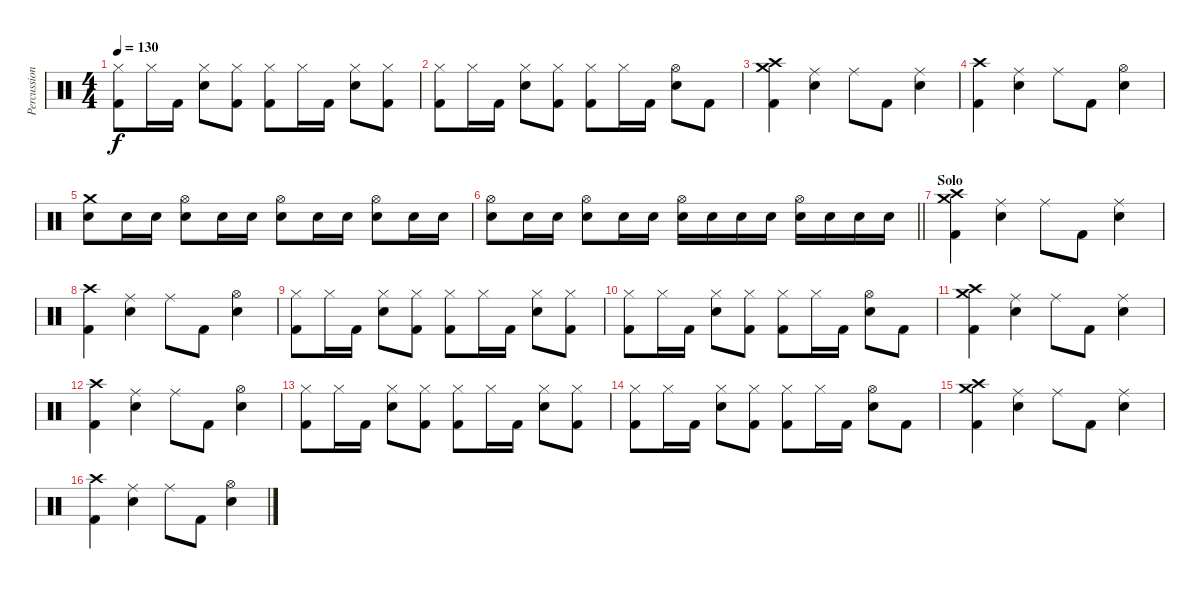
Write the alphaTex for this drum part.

\track ("Percussion" "Percussion") {instrument percussion}
\staff {score}
\articulation defaults
\ts (4 4)
\tempo 130
\clef neutral
\ks c
("Hi-Hat (closed)" "Kick (hit) 2").8{dy f} "Hi-Hat (closed)".16 "Kick (hit) 2".16 ("Hi-Hat (closed)" "Snare (hit) 2").8 ("Hi-Hat (closed)" "Kick (hit) 2").8 ("Hi-Hat (closed)" "Kick (hit) 2").8 "Hi-Hat (closed)".16 "Kick (hit) 2".16 ("Hi-Hat (closed)" "Snare (hit) 2").8 ("Hi-Hat (closed)" "Kick (hit) 2").8 |
("Hi-Hat (closed)" "Kick (hit) 2").8 "Hi-Hat (closed)".16 "Kick (hit) 2".16 ("Hi-Hat (closed)" "Snare (hit) 2").8 ("Hi-Hat (closed)" "Kick (hit) 2").8 ("Hi-Hat (closed)" "Kick (hit) 2").8 "Hi-Hat (closed)".16 "Kick (hit) 2".16 ("Hi-Hat (open)" "Snare (hit) 2").8 "Kick (hit) 2".8 |
("Crash high (hit)" "Crash medium (hit)" "Kick (hit) 2").4 ("Ride (middle)" "Snare (hit) 2").4 "Ride (middle)".8 "Kick (hit) 2".8 ("Ride (middle)" "Snare (hit) 2").4 |
("Crash high (hit)" "Kick (hit) 2").4 ("Ride (middle)" "Snare (hit) 2").4 "Ride (middle)".8 "Kick (hit) 2".8 ("Hi-Hat (open)" "Snare (hit) 2").4 |
("Crash medium (hit)" "Snare (hit) 2").8 "Snare (hit) 2".16 "Snare (hit) 2".16 ("Hi-Hat (open)" "Snare (hit) 2").8 "Snare (hit) 2".16 "Snare (hit) 2".16 ("Hi-Hat (open)" "Snare (hit) 2").8 "Snare (hit) 2".16 "Snare (hit) 2".16 ("Hi-Hat (open)" "Snare (hit) 2").8 "Snare (hit) 2".16 "Snare (hit) 2".16 |
\barLineRight lightlight
("Hi-Hat (open)" "Snare (hit) 2").8 "Snare (hit) 2".16 "Snare (hit) 2".16 ("Hi-Hat (open)" "Snare (hit) 2").8 "Snare (hit) 2".16 "Snare (hit) 2".16 ("Hi-Hat (open)" "Snare (hit) 2").16 "Snare (hit) 2".16 "Snare (hit) 2".16 "Snare (hit) 2".16 ("Hi-Hat (open)" "Snare (hit) 2").16 "Snare (hit) 2".16 "Snare (hit) 2".16 "Snare (hit) 2".16 |
\section ("" "Solo")
("Crash high (hit)" "Crash medium (hit)" "Kick (hit) 2").4 ("Ride (middle)" "Snare (hit) 2").4 "Ride (middle)".8 "Kick (hit) 2".8 ("Ride (middle)" "Snare (hit) 2").4 |
("Crash high (hit)" "Kick (hit) 2").4 ("Ride (middle)" "Snare (hit) 2").4 "Ride (middle)".8 "Kick (hit) 2".8 ("Hi-Hat (open)" "Snare (hit) 2").4 |
("Hi-Hat (closed)" "Kick (hit) 2").8 "Hi-Hat (closed)".16 "Kick (hit) 2".16 ("Hi-Hat (closed)" "Snare (hit) 2").8 ("Hi-Hat (closed)" "Kick (hit) 2").8 ("Hi-Hat (closed)" "Kick (hit) 2").8 "Hi-Hat (closed)".16 "Kick (hit) 2".16 ("Hi-Hat (closed)" "Snare (hit) 2").8 ("Hi-Hat (closed)" "Kick (hit) 2").8 |
("Hi-Hat (closed)" "Kick (hit) 2").8 "Hi-Hat (closed)".16 "Kick (hit) 2".16 ("Hi-Hat (closed)" "Snare (hit) 2").8 ("Hi-Hat (closed)" "Kick (hit) 2").8 ("Hi-Hat (closed)" "Kick (hit) 2").8 "Hi-Hat (closed)".16 "Kick (hit) 2".16 ("Hi-Hat (open)" "Snare (hit) 2").8 "Kick (hit) 2".8 |
("Crash high (hit)" "Crash medium (hit)" "Kick (hit) 2").4 ("Ride (middle)" "Snare (hit) 2").4 "Ride (middle)".8 "Kick (hit) 2".8 ("Ride (middle)" "Snare (hit) 2").4 |
("Crash high (hit)" "Kick (hit) 2").4 ("Ride (middle)" "Snare (hit) 2").4 "Ride (middle)".8 "Kick (hit) 2".8 ("Hi-Hat (open)" "Snare (hit) 2").4 |
("Hi-Hat (closed)" "Kick (hit) 2").8 "Hi-Hat (closed)".16 "Kick (hit) 2".16 ("Hi-Hat (closed)" "Snare (hit) 2").8 ("Hi-Hat (closed)" "Kick (hit) 2").8 ("Hi-Hat (closed)" "Kick (hit) 2").8 "Hi-Hat (closed)".16 "Kick (hit) 2".16 ("Hi-Hat (closed)" "Snare (hit) 2").8 ("Hi-Hat (closed)" "Kick (hit) 2").8 |
("Hi-Hat (closed)" "Kick (hit) 2").8 "Hi-Hat (closed)".16 "Kick (hit) 2".16 ("Hi-Hat (closed)" "Snare (hit) 2").8 ("Hi-Hat (closed)" "Kick (hit) 2").8 ("Hi-Hat (closed)" "Kick (hit) 2").8 "Hi-Hat (closed)".16 "Kick (hit) 2".16 ("Hi-Hat (open)" "Snare (hit) 2").8 "Kick (hit) 2".8 |
("Crash high (hit)" "Crash medium (hit)" "Kick (hit) 2").4 ("Ride (middle)" "Snare (hit) 2").4 "Ride (middle)".8 "Kick (hit) 2".8 ("Ride (middle)" "Snare (hit) 2").4 |
("Crash high (hit)" "Kick (hit) 2").4 ("Ride (middle)" "Snare (hit) 2").4 "Ride (middle)".8 "Kick (hit) 2".8 ("Hi-Hat (open)" "Snare (hit) 2").4
